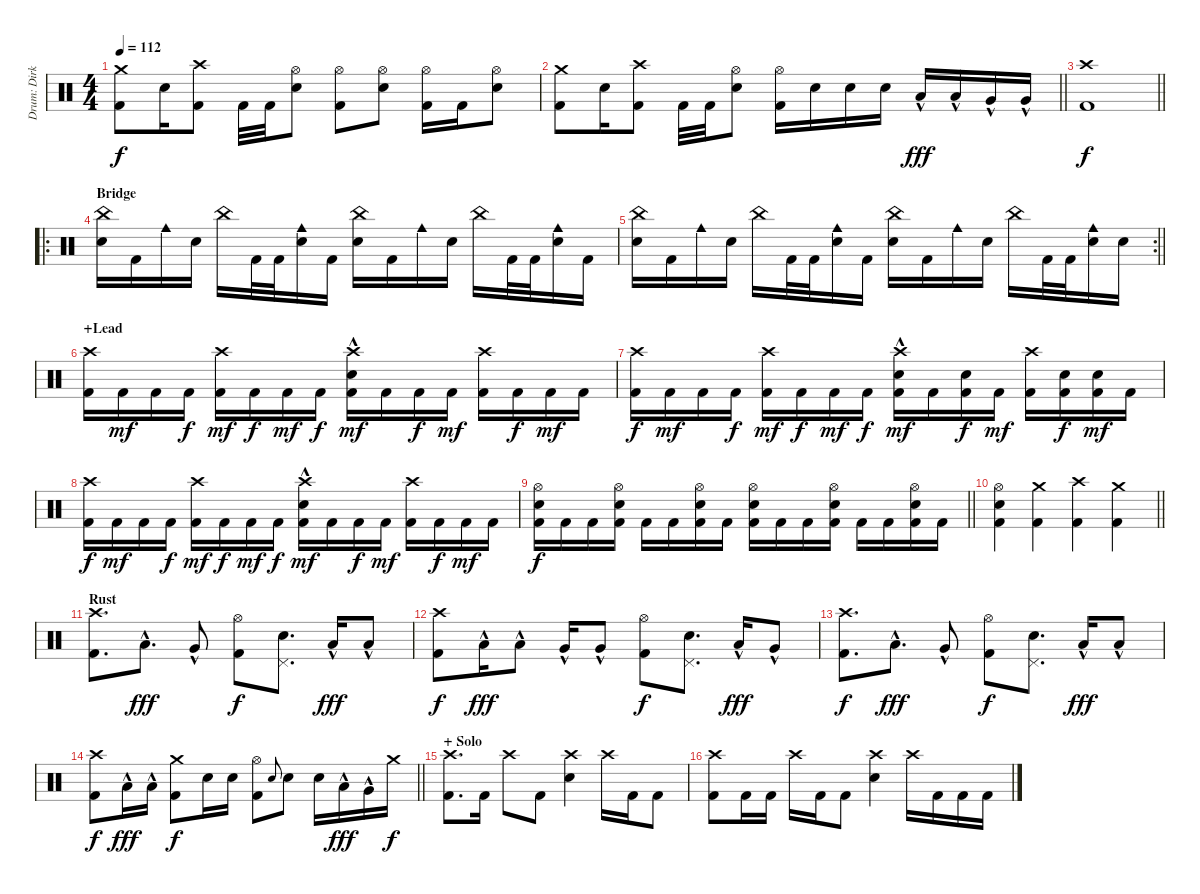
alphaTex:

\track ("Drum: Dirk" "Drum: Dirk") {instrument percussion}
\staff {score}
\articulation defaults
\ts (4 4)
\tempo 112
\clef neutral
\ks c
("Crash medium (hit)" "Kick (hit) 2").8{dy f} "Electric Snare (hit)".16 ("Crash high (hit)" "Kick (hit) 2").8 "Kick (hit) 2".32 "Kick (hit) 2".32 ("Hi-Hat (open)" "Electric Snare (hit)").8 ("Hi-Hat (open)" "Kick (hit) 2").8 ("Hi-Hat (open)" "Electric Snare (hit)").8 ("Hi-Hat (open)" "Kick (hit) 2").16 "Kick (hit) 2".16 ("Hi-Hat (open)" "Electric Snare (hit)").8 |
\barLineRight lightlight
("Crash medium (hit)" "Kick (hit) 2").8 "Electric Snare (hit)".16 ("Crash high (hit)" "Kick (hit) 2").8 "Kick (hit) 2".32 "Kick (hit) 2".32 ("Hi-Hat (open)" "Electric Snare (hit)").8 ("Hi-Hat (open)" "Kick (hit) 2").16 "Electric Snare (hit)".16 "Electric Snare (hit)".16 "Electric Snare (hit)".16 "Low Tom (hit)"{hac}.16{dy fff} "Low Tom (hit)"{hac}.16 "Very Low Tom (hit)"{hac}.16 "Very Low Tom (hit)"{hac}.16 |
\section ("" "")
\barLineRight lightlight
("Crash high (hit)" "Kick (hit) 2").1{dy f} |
\ro
\section ("" "Bridge")
("China (hit)" "Electric Snare (hit)").16 "Kick (hit) 2".16 "Cowbell medium (hit)".16 "Electric Snare (hit)".16 "China (hit)".16 "Kick (hit) 2".32 "Kick (hit) 2".32 ("Cowbell medium (hit)" "Electric Snare (hit)").16 "Kick (hit) 2".16 ("China (hit)" "Electric Snare (hit)").16 "Kick (hit) 2".16 "Cowbell medium (hit)".16 "Electric Snare (hit)".16 "China (hit)".16 "Kick (hit) 2".32 "Kick (hit) 2".32 ("Cowbell medium (hit)" "Electric Snare (hit)").16 "Kick (hit) 2".16 |
\rc 2
\barLineRight lightlight
("China (hit)" "Electric Snare (hit)").16 "Kick (hit) 2".16 "Cowbell medium (hit)".16 "Electric Snare (hit)".16 "China (hit)".16 "Kick (hit) 2".32 "Kick (hit) 2".32 ("Cowbell medium (hit)" "Electric Snare (hit)").16 "Kick (hit) 2".16 ("China (hit)" "Electric Snare (hit)").16 "Kick (hit) 2".16 "Cowbell medium (hit)".16 "Electric Snare (hit)".16 "China (hit)".16 "Kick (hit) 2".32 "Kick (hit) 2".32 ("Cowbell medium (hit)" "Electric Snare (hit)").16 "Electric Snare (hit)".16 |
\section ("" "+Lead")
("Crash high (hit)" "Kick (hit) 2").16 "Kick (hit) 2".16{dy mf} "Kick (hit) 2".16 "Kick (hit) 2".16{dy f} ("Crash high (hit)" "Kick (hit) 2").16{dy mf} "Kick (hit) 2".16{dy f} "Kick (hit) 2".16{dy mf} "Kick (hit) 2".16{dy f} ("Crash high (hit)" "Electric Snare (hit)"{hac} "Kick (hit) 2").16{dy mf} "Kick (hit) 2".16 "Kick (hit) 2".16{dy f} "Kick (hit) 2".16{dy mf} ("Crash high (hit)" "Kick (hit) 2").16 "Kick (hit) 2".16{dy f} "Kick (hit) 2".16{dy mf} "Kick (hit) 2".16 |
("Crash high (hit)" "Kick (hit) 2").16{dy f} "Kick (hit) 2".16{dy mf} "Kick (hit) 2".16 "Kick (hit) 2".16{dy f} ("Crash high (hit)" "Kick (hit) 2").16{dy mf} "Kick (hit) 2".16{dy f} "Kick (hit) 2".16{dy mf} "Kick (hit) 2".16{dy f} ("Crash high (hit)" "Electric Snare (hit)"{hac} "Kick (hit) 2").16{dy mf} "Kick (hit) 2".16 ("Electric Snare (hit)" "Kick (hit) 2").16{dy f} "Kick (hit) 2".16{dy mf} ("Crash high (hit)" "Kick (hit) 2").16 ("Electric Snare (hit)" "Kick (hit) 2").16{dy f} ("Electric Snare (hit)" "Kick (hit) 2").16{dy mf} "Kick (hit) 2".16 |
("Crash high (hit)" "Kick (hit) 2").16{dy f} "Kick (hit) 2".16{dy mf} "Kick (hit) 2".16 "Kick (hit) 2".16{dy f} ("Crash high (hit)" "Kick (hit) 2").16{dy mf} "Kick (hit) 2".16{dy f} "Kick (hit) 2".16{dy mf} "Kick (hit) 2".16{dy f} ("Crash high (hit)" "Electric Snare (hit)"{hac} "Kick (hit) 2").16{dy mf} "Kick (hit) 2".16 "Kick (hit) 2".16{dy f} "Kick (hit) 2".16{dy mf} ("Crash high (hit)" "Kick (hit) 2").16 "Kick (hit) 2".16{dy f} "Kick (hit) 2".16{dy mf} "Kick (hit) 2".16 |
\barLineRight lightlight
("Hi-Hat (open)" "Electric Snare (hit)" "Kick (hit) 2").16{dy f} "Kick (hit) 2".16 "Kick (hit) 2".16 ("Hi-Hat (open)" "Electric Snare (hit)" "Kick (hit) 2").16 "Kick (hit) 2".16 "Kick (hit) 2".16 ("Hi-Hat (open)" "Electric Snare (hit)" "Kick (hit) 2").16 "Kick (hit) 2".16 ("Hi-Hat (open)" "Electric Snare (hit)" "Kick (hit) 2").16 "Kick (hit) 2".16 "Kick (hit) 2".16 ("Hi-Hat (open)" "Electric Snare (hit)" "Kick (hit) 2").16 "Kick (hit) 2".16 "Kick (hit) 2".16 ("Hi-Hat (open)" "Electric Snare (hit)" "Kick (hit) 2").16 "Kick (hit) 2".16 |
\section ("" "")
\barLineRight lightlight
("Hi-Hat (open)" "Electric Snare (hit)" "Kick (hit) 2").4 ("Crash medium (hit)" "Kick (hit) 2").4 ("Crash high (hit)" "Kick (hit) 2").4 ("Crash medium (hit)" "Kick (hit) 2").4 |
\section ("" "Rust")
("Crash high (hit)" "Kick (hit) 2").8{d} "Low Tom (hit)"{hac}.8{d dy fff} "Very Low Tom (hit)"{hac}.8 ("Hi-Hat (open)" "Kick (hit) 2").8{dy f} ("Pedal Hi-Hat (hit)" "Electric Snare (hit)").8{d} "Low Tom (hit)"{hac}.16{dy fff} "Low Tom (hit)"{hac}.8 |
("Crash high (hit)" "Kick (hit) 2").8{dy f} "Low Tom (hit)"{hac}.16{dy fff} "Low Tom (hit)"{hac}.8 "Very Low Tom (hit)"{hac}.16 "Very Low Tom (hit)"{hac}.8 ("Hi-Hat (open)" "Kick (hit) 2").8{dy f} ("Pedal Hi-Hat (hit)" "Electric Snare (hit)").8{d} "Low Tom (hit)"{hac}.16{dy fff} "Very Low Tom (hit)"{hac}.8 |
("Crash high (hit)" "Kick (hit) 2").8{d dy f} "Low Tom (hit)"{hac}.8{d dy fff} "Very Low Tom (hit)"{hac}.8 ("Hi-Hat (open)" "Kick (hit) 2").8{dy f} ("Pedal Hi-Hat (hit)" "Electric Snare (hit)").8{d} "Low Tom (hit)"{hac}.16{dy fff} "Low Tom (hit)"{hac}.8 |
\barLineRight lightlight
("Crash high (hit)" "Kick (hit) 2").8{dy f} "Low Tom (hit)"{hac}.16{dy fff} "Low Tom (hit)"{hac}.16 ("Crash medium (hit)" "Kick (hit) 2").8{dy f} "Electric Snare (hit)".16 "Electric Snare (hit)".16 ("Hi-Hat (open)" "Kick (hit) 2").8 "Electric Snare (hit)".8{gr onbeat} "Electric Snare (hit)".8 "Electric Snare (hit)".16 "Low Tom (hit)"{hac}.16{dy fff} "Very Low Tom (hit)"{hac}.16 "Crash medium (hit)".16{dy f} |
\section ("" "+ Solo")
("Crash high (hit)" "Kick (hit) 2").8{d} "Kick (hit) 2".16 "Crash high (hit)".8 "Kick (hit) 2".8 ("Crash high (hit)" "Electric Snare (hit)").4 "Crash high (hit)".16 "Kick (hit) 2".16 "Kick (hit) 2".8 |
("Crash high (hit)" "Kick (hit) 2").8 "Kick (hit) 2".16 "Kick (hit) 2".16 "Crash high (hit)".16 "Kick (hit) 2".16 "Kick (hit) 2".8 ("Crash high (hit)" "Electric Snare (hit)").4 "Crash high (hit)".16 "Kick (hit) 2".16 "Kick (hit) 2".16 "Kick (hit) 2".16
